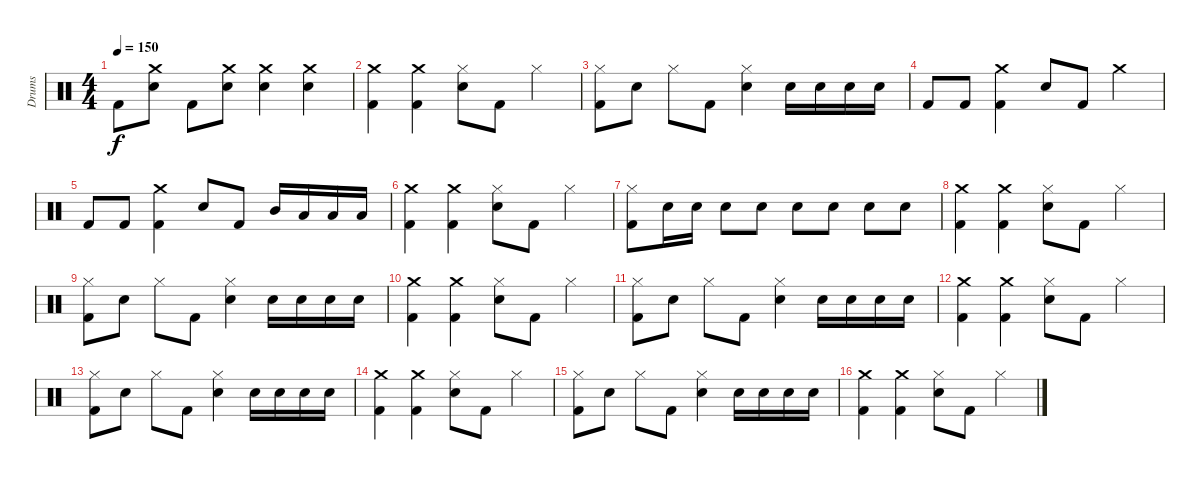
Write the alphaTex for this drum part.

\track ("Drums" "Drums") {instrument percussion}
\staff {score}
\articulation defaults
\ts (4 4)
\tempo 150
\clef neutral
\ks c "Kick (hit) 2".8{dy f}
("Crash medium (hit)" "Snare (hit) 2").8 "Kick (hit) 2".8 ("Crash medium (hit)" "Snare (hit) 2").8 ("Crash medium (hit)" "Snare (hit) 2").4 ("Crash medium (hit)" "Snare (hit) 2").4 |
("Crash medium (hit)" "Kick (hit) 2").4 ("Crash medium (hit)" "Kick (hit) 2").4 ("Hi-Hat (closed)" "Snare (hit) 2").8 "Kick (hit) 2".8 "Hi-Hat (closed)".4 |
("Hi-Hat (closed)" "Kick (hit) 2").8 "Snare (hit) 2".8 "Hi-Hat (closed)".8 "Kick (hit) 2".8 ("Hi-Hat (closed)" "Snare (hit) 2").4 "Snare (hit) 2".16 "Snare (hit) 2".16 "Snare (hit) 2".16 "Snare (hit) 2".16 |
"Kick (hit) 2".8 "Kick (hit) 2".8 ("Crash medium (hit)" "Kick (hit) 2").4 "Snare (hit) 2".8 "Kick (hit) 2".8 "Crash medium (hit)".4 |
"Kick (hit) 2".8 "Kick (hit) 2".8 ("Crash medium (hit)" "Kick (hit) 2").4 "Snare (hit) 2".8 "Kick (hit) 2".8 "Mid Tom (hit)".16 "Low Tom (hit)".16 "Low Floor Tom (hit)".16 "Low Floor Tom (hit)".16 |
("Crash medium (hit)" "Kick (hit) 2").4 ("Crash medium (hit)" "Kick (hit) 2").4 ("Hi-Hat (closed)" "Snare (hit) 2").8 "Kick (hit) 2".8 "Hi-Hat (closed)".4 |
("Hi-Hat (closed)" "Kick (hit) 2").8 "Snare (hit) 2".16 "Snare (hit) 2".16 "Snare (hit) 2".8 "Snare (hit) 2".8 "Snare (hit) 2".8 "Snare (hit) 2".8 "Snare (hit) 2".8 "Snare (hit) 2".8 |
("Crash medium (hit)" "Kick (hit) 2").4 ("Crash medium (hit)" "Kick (hit) 2").4 ("Hi-Hat (closed)" "Snare (hit) 2").8 "Kick (hit) 2".8 "Hi-Hat (closed)".4 |
("Hi-Hat (closed)" "Kick (hit) 2").8 "Snare (hit) 2".8 "Hi-Hat (closed)".8 "Kick (hit) 2".8 ("Hi-Hat (closed)" "Snare (hit) 2").4 "Snare (hit) 2".16 "Snare (hit) 2".16 "Snare (hit) 2".16 "Snare (hit) 2".16 |
("Crash medium (hit)" "Kick (hit) 2").4 ("Crash medium (hit)" "Kick (hit) 2").4 ("Hi-Hat (closed)" "Snare (hit) 2").8 "Kick (hit) 2".8 "Hi-Hat (closed)".4 |
("Hi-Hat (closed)" "Kick (hit) 2").8 "Snare (hit) 2".8 "Hi-Hat (closed)".8 "Kick (hit) 2".8 ("Hi-Hat (closed)" "Snare (hit) 2").4 "Snare (hit) 2".16 "Snare (hit) 2".16 "Snare (hit) 2".16 "Snare (hit) 2".16 |
("Crash medium (hit)" "Kick (hit) 2").4 ("Crash medium (hit)" "Kick (hit) 2").4 ("Hi-Hat (closed)" "Snare (hit) 2").8 "Kick (hit) 2".8 "Hi-Hat (closed)".4 |
("Hi-Hat (closed)" "Kick (hit) 2").8 "Snare (hit) 2".8 "Hi-Hat (closed)".8 "Kick (hit) 2".8 ("Hi-Hat (closed)" "Snare (hit) 2").4 "Snare (hit) 2".16 "Snare (hit) 2".16 "Snare (hit) 2".16 "Snare (hit) 2".16 |
("Crash medium (hit)" "Kick (hit) 2").4 ("Crash medium (hit)" "Kick (hit) 2").4 ("Hi-Hat (closed)" "Snare (hit) 2").8 "Kick (hit) 2".8 "Hi-Hat (closed)".4 |
("Hi-Hat (closed)" "Kick (hit) 2").8 "Snare (hit) 2".8 "Hi-Hat (closed)".8 "Kick (hit) 2".8 ("Hi-Hat (closed)" "Snare (hit) 2").4 "Snare (hit) 2".16 "Snare (hit) 2".16 "Snare (hit) 2".16 "Snare (hit) 2".16 |
("Crash medium (hit)" "Kick (hit) 2").4 ("Crash medium (hit)" "Kick (hit) 2").4 ("Hi-Hat (closed)" "Snare (hit) 2").8 "Kick (hit) 2".8 "Hi-Hat (closed)".4
